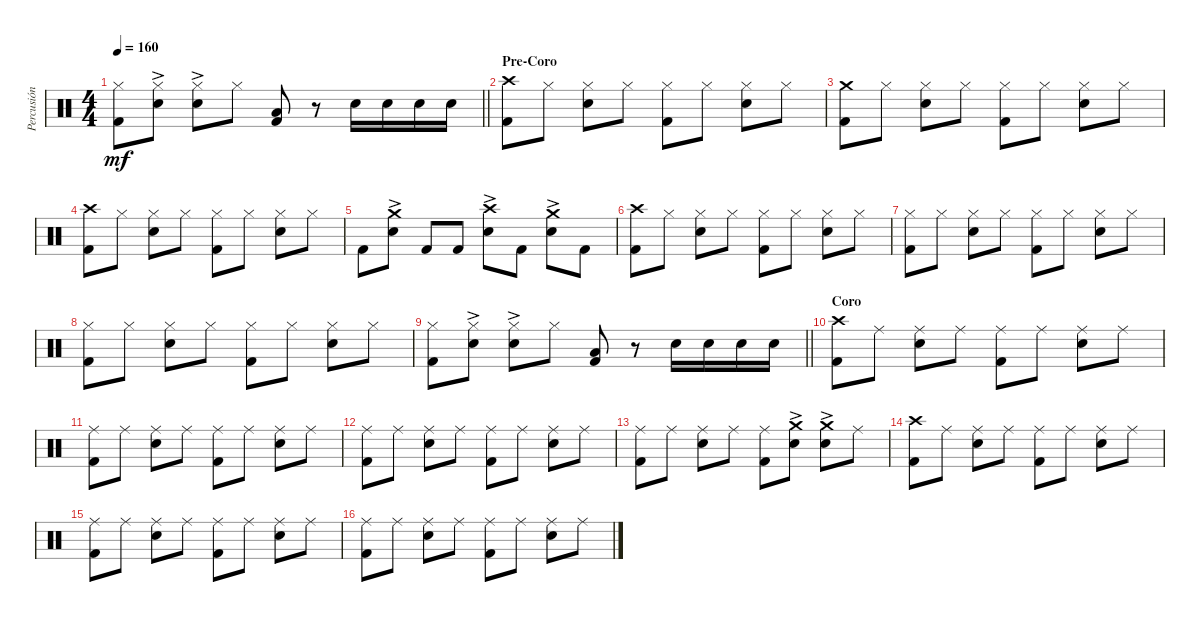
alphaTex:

\track ("Percusión" "Percusión") {instrument percussion}
\staff {score}
\articulation defaults
\ts (4 4)
\tempo 160
\clef neutral
\barLineRight lightlight
\ks c
("Hi-Hat (closed)" "Kick (hit) 2").8{dy mf} ("Hi-Hat (closed)" "Electric Snare (hit)"{ac}).8 ("Hi-Hat (closed)" "Electric Snare (hit)"{ac}).8 "Hi-Hat (closed)".8 ("Low Floor Tom (hit)" "Kick (hit) 2").8 r.8 "Electric Snare (hit)".16 "Electric Snare (hit)".16 "Electric Snare (hit)".16 "Electric Snare (hit)".16 |
\section ("" "Pre-Coro")
("Crash high (hit)" "Kick (hit) 2").8 "Hi-Hat (closed)".8 ("Hi-Hat (closed)" "Electric Snare (hit)").8 "Hi-Hat (closed)".8 ("Hi-Hat (closed)" "Kick (hit) 2").8 "Hi-Hat (closed)".8 ("Hi-Hat (closed)" "Electric Snare (hit)").8 "Hi-Hat (closed)".8 |
("Crash medium (hit)" "Kick (hit) 2").8 "Hi-Hat (closed)".8 ("Hi-Hat (closed)" "Electric Snare (hit)").8 "Hi-Hat (closed)".8 ("Hi-Hat (closed)" "Kick (hit) 2").8 "Hi-Hat (closed)".8 ("Hi-Hat (closed)" "Electric Snare (hit)").8 "Hi-Hat (closed)".8 |
("Crash high (hit)" "Kick (hit) 2").8 "Hi-Hat (closed)".8 ("Hi-Hat (closed)" "Electric Snare (hit)").8 "Hi-Hat (closed)".8 ("Hi-Hat (closed)" "Kick (hit) 2").8 "Hi-Hat (closed)".8 ("Hi-Hat (closed)" "Electric Snare (hit)").8 "Hi-Hat (closed)".8 |
"Kick (hit) 2".8 ("Crash medium (hit)" "Electric Snare (hit)"{ac}).8 "Kick (hit) 2".8 "Kick (hit) 2".8 ("Crash high (hit)" "Electric Snare (hit)"{ac}).8 "Kick (hit) 2".8 ("Crash medium (hit)" "Electric Snare (hit)"{ac}).8 "Kick (hit) 2".8 |
("Crash high (hit)" "Kick (hit) 2").8 "Hi-Hat (closed)".8 ("Hi-Hat (closed)" "Electric Snare (hit)").8 "Hi-Hat (closed)".8 ("Hi-Hat (closed)" "Kick (hit) 2").8 "Hi-Hat (closed)".8 ("Hi-Hat (closed)" "Electric Snare (hit)").8 "Hi-Hat (closed)".8 |
("Hi-Hat (closed)" "Kick (hit) 2").8 "Hi-Hat (closed)".8 ("Hi-Hat (closed)" "Electric Snare (hit)").8 "Hi-Hat (closed)".8 ("Hi-Hat (closed)" "Kick (hit) 2").8 "Hi-Hat (closed)".8 ("Hi-Hat (closed)" "Electric Snare (hit)").8 "Hi-Hat (closed)".8 |
("Hi-Hat (closed)" "Kick (hit) 2").8 "Hi-Hat (closed)".8 ("Hi-Hat (closed)" "Electric Snare (hit)").8 "Hi-Hat (closed)".8 ("Hi-Hat (closed)" "Kick (hit) 2").8 "Hi-Hat (closed)".8 ("Hi-Hat (closed)" "Electric Snare (hit)").8 "Hi-Hat (closed)".8 |
\barLineRight lightlight
("Hi-Hat (closed)" "Kick (hit) 2").8 ("Hi-Hat (closed)" "Electric Snare (hit)"{ac}).8 ("Hi-Hat (closed)" "Electric Snare (hit)"{ac}).8 "Hi-Hat (closed)".8 ("Low Floor Tom (hit)" "Kick (hit) 2").8 r.8 "Electric Snare (hit)".16 "Electric Snare (hit)".16 "Electric Snare (hit)".16 "Electric Snare (hit)".16 |
\section ("" "Coro")
("Crash high (hit)" "Kick (hit) 2").8 "Ride (middle)".8 ("Ride (middle)" "Electric Snare (hit)").8 "Ride (middle)".8 ("Ride (middle)" "Kick (hit) 2").8 "Ride (middle)".8 ("Ride (middle)" "Electric Snare (hit)").8 "Ride (middle)".8 |
("Ride (middle)" "Kick (hit) 2").8 "Ride (middle)".8 ("Ride (middle)" "Electric Snare (hit)").8 "Ride (middle)".8 ("Ride (middle)" "Kick (hit) 2").8 "Ride (middle)".8 ("Ride (middle)" "Electric Snare (hit)").8 "Ride (middle)".8 |
("Ride (middle)" "Kick (hit) 2").8 "Ride (middle)".8 ("Ride (middle)" "Electric Snare (hit)").8 "Ride (middle)".8 ("Ride (middle)" "Kick (hit) 2").8 "Ride (middle)".8 ("Ride (middle)" "Electric Snare (hit)").8 "Ride (middle)".8 |
("Ride (middle)" "Kick (hit) 2").8 "Ride (middle)".8 ("Ride (middle)" "Electric Snare (hit)").8 "Ride (middle)".8 ("Ride (middle)" "Kick (hit) 2").8 ("Crash medium (hit)" "Electric Snare (hit)"{ac}).8 ("Crash medium (hit)" "Electric Snare (hit)"{ac}).8 "Ride (middle)".8 |
("Crash high (hit)" "Kick (hit) 2").8 "Ride (middle)".8 ("Ride (middle)" "Electric Snare (hit)").8 "Ride (middle)".8 ("Ride (middle)" "Kick (hit) 2").8 "Ride (middle)".8 ("Ride (middle)" "Electric Snare (hit)").8 "Ride (middle)".8 |
("Ride (middle)" "Kick (hit) 2").8 "Ride (middle)".8 ("Ride (middle)" "Electric Snare (hit)").8 "Ride (middle)".8 ("Ride (middle)" "Kick (hit) 2").8 "Ride (middle)".8 ("Ride (middle)" "Electric Snare (hit)").8 "Ride (middle)".8 |
("Ride (middle)" "Kick (hit) 2").8 "Ride (middle)".8 ("Ride (middle)" "Electric Snare (hit)").8 "Ride (middle)".8 ("Ride (middle)" "Kick (hit) 2").8 "Ride (middle)".8 ("Ride (middle)" "Electric Snare (hit)").8 "Ride (middle)".8
